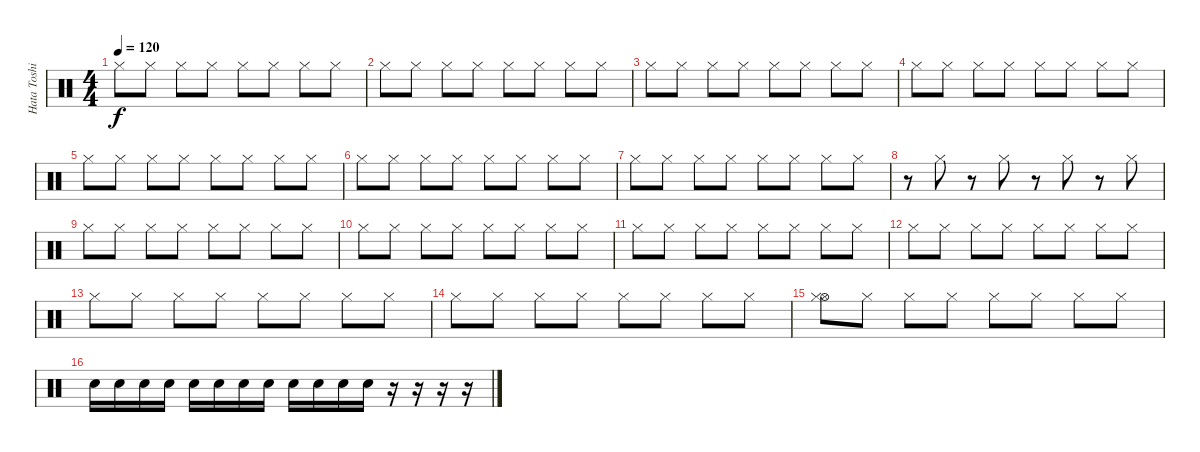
\track ("Hata Toshiki" "Hata Toshi") {instrument percussion}
\staff {score}
\articulation defaults
\ts (4 4)
\tempo 120
\clef neutral
\ks c "Hi-Hat (closed)".8{dy f} "Hi-Hat (closed)".8 "Hi-Hat (closed)".8 "Hi-Hat (closed)".8 "Hi-Hat (closed)".8 "Hi-Hat (closed)".8 "Hi-Hat (closed)".8 "Hi-Hat (closed)".8
|
"Hi-Hat (closed)".8 "Hi-Hat (closed)".8 "Hi-Hat (closed)".8 "Hi-Hat (closed)".8 "Hi-Hat (closed)".8 "Hi-Hat (closed)".8 "Hi-Hat (closed)".8 "Hi-Hat (closed)".8 |
"Hi-Hat (closed)".8 "Hi-Hat (closed)".8 "Hi-Hat (closed)".8 "Hi-Hat (closed)".8 "Hi-Hat (closed)".8 "Hi-Hat (closed)".8 "Hi-Hat (closed)".8 "Hi-Hat (closed)".8 |
"Hi-Hat (closed)".8 "Hi-Hat (closed)".8 "Hi-Hat (closed)".8 "Hi-Hat (closed)".8 "Hi-Hat (closed)".8 "Hi-Hat (closed)".8 "Hi-Hat (closed)".8 "Hi-Hat (closed)".8 |
"Hi-Hat (closed)".8 "Hi-Hat (closed)".8 "Hi-Hat (closed)".8 "Hi-Hat (closed)".8 "Hi-Hat (closed)".8 "Hi-Hat (closed)".8 "Hi-Hat (closed)".8 "Hi-Hat (closed)".8 |
"Hi-Hat (closed)".8 "Hi-Hat (closed)".8 "Hi-Hat (closed)".8 "Hi-Hat (closed)".8 "Hi-Hat (closed)".8 "Hi-Hat (closed)".8 "Hi-Hat (closed)".8 "Hi-Hat (closed)".8 |
"Hi-Hat (closed)".8 "Hi-Hat (closed)".8 "Hi-Hat (closed)".8 "Hi-Hat (closed)".8 "Hi-Hat (closed)".8 "Hi-Hat (closed)".8 "Hi-Hat (closed)".8 "Hi-Hat (closed)".8 |
r.8 "Hi-Hat (closed)".8 r.8 "Hi-Hat (closed)".8 r.8 "Hi-Hat (closed)".8 r.8 "Hi-Hat (closed)".8 |
"Hi-Hat (closed)".8 "Hi-Hat (closed)".8 "Hi-Hat (closed)".8 "Hi-Hat (closed)".8 "Hi-Hat (closed)".8 "Hi-Hat (closed)".8 "Hi-Hat (closed)".8 "Hi-Hat (closed)".8 |
"Hi-Hat (closed)".8 "Hi-Hat (closed)".8 "Hi-Hat (closed)".8 "Hi-Hat (closed)".8 "Hi-Hat (closed)".8 "Hi-Hat (closed)".8 "Hi-Hat (closed)".8 "Hi-Hat (closed)".8 |
"Hi-Hat (closed)".8 "Hi-Hat (closed)".8 "Hi-Hat (closed)".8 "Hi-Hat (closed)".8 "Hi-Hat (closed)".8 "Hi-Hat (closed)".8 "Hi-Hat (closed)".8 "Hi-Hat (closed)".8 |
"Hi-Hat (closed)".8 "Hi-Hat (closed)".8 "Hi-Hat (closed)".8 "Hi-Hat (closed)".8 "Hi-Hat (closed)".8 "Hi-Hat (closed)".8 "Hi-Hat (closed)".8 "Hi-Hat (closed)".8 |
"Hi-Hat (closed)".8 "Hi-Hat (closed)".8 "Hi-Hat (closed)".8 "Hi-Hat (closed)".8 "Hi-Hat (closed)".8 "Hi-Hat (closed)".8 "Hi-Hat (closed)".8 "Hi-Hat (closed)".8 |
"Hi-Hat (closed)".8 "Hi-Hat (closed)".8 "Hi-Hat (closed)".8 "Hi-Hat (closed)".8 "Hi-Hat (closed)".8 "Hi-Hat (closed)".8 "Hi-Hat (closed)".8 "Hi-Hat (closed)".8 |
("Hi-Hat (open)" "Hi-Hat (closed)").8 "Hi-Hat (closed)".8 "Hi-Hat (closed)".8 "Hi-Hat (closed)".8 "Hi-Hat (closed)".8 "Hi-Hat (closed)".8 "Hi-Hat (closed)".8 "Hi-Hat (closed)".8 |
"Electric Snare (hit)".16 "Electric Snare (hit)".16 "Electric Snare (hit)".16 "Electric Snare (hit)".16 "Electric Snare (hit)".16 "Electric Snare (hit)".16 "Electric Snare (hit)".16 "Electric Snare (hit)".16 "Electric Snare (hit)".16 "Electric Snare (hit)".16 "Electric Snare (hit)".16 "Electric Snare (hit)".16 r.16 r.16 r.16 r.16
